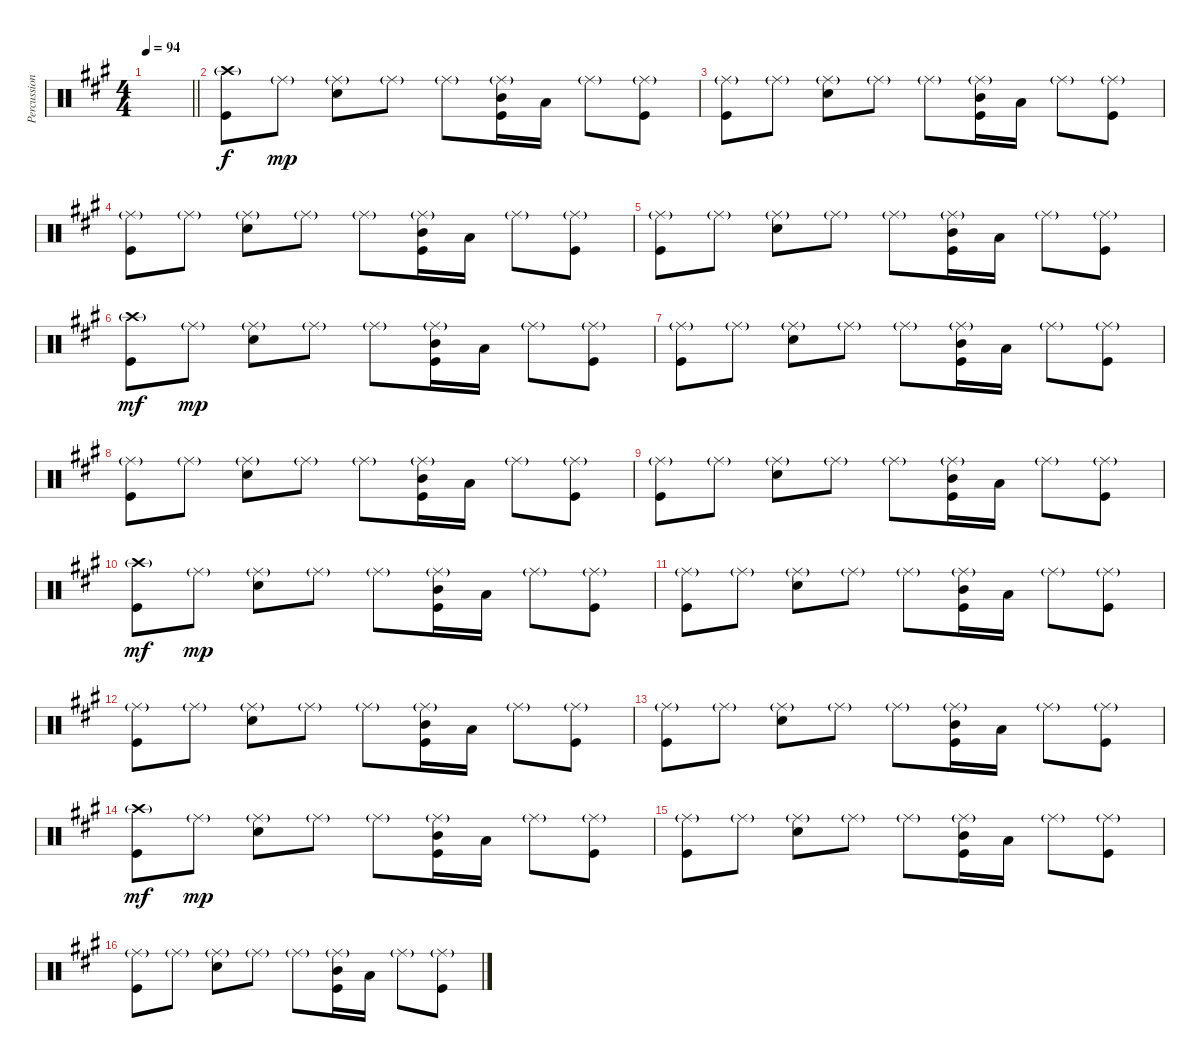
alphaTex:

\track ("Percussion" "Percussion") {instrument percussion}
\staff {score}
\articulation defaults
\ts (4 4)
\tempo 94
\clef neutral
\barLineRight lightlight
\ks a
|
("Crash high (hit)"{g} "Kick (hit)").8 "Ride (middle)"{g}.8{dy mp} ("Ride (middle)"{g} "Electric Snare (hit)").8 "Ride (middle)"{g}.8 "Ride (middle)"{g}.8 ("Ride (middle)"{g} "Mid Tom (hit)" "Kick (hit)").16 "Low Tom (hit)".16 "Ride (middle)"{g}.8 ("Ride (middle)"{g} "Kick (hit)").8 |
("Ride (middle)"{g} "Kick (hit)").8 "Ride (middle)"{g}.8 ("Ride (middle)"{g} "Electric Snare (hit)").8 "Ride (middle)"{g}.8 "Ride (middle)"{g}.8 ("Ride (middle)"{g} "Mid Tom (hit)" "Kick (hit)").16 "Low Tom (hit)".16 "Ride (middle)"{g}.8 ("Ride (middle)"{g} "Kick (hit)").8 |
("Ride (middle)"{g} "Kick (hit)").8 "Ride (middle)"{g}.8 ("Ride (middle)"{g} "Electric Snare (hit)").8 "Ride (middle)"{g}.8 "Ride (middle)"{g}.8 ("Ride (middle)"{g} "Mid Tom (hit)" "Kick (hit)").16 "Low Tom (hit)".16 "Ride (middle)"{g}.8 ("Ride (middle)"{g} "Kick (hit)").8 |
("Ride (middle)"{g} "Kick (hit)").8 "Ride (middle)"{g}.8 ("Ride (middle)"{g} "Electric Snare (hit)").8 "Ride (middle)"{g}.8 "Ride (middle)"{g}.8 ("Ride (middle)"{g} "Mid Tom (hit)" "Kick (hit)").16 "Low Tom (hit)".16 "Ride (middle)"{g}.8 ("Ride (middle)"{g} "Kick (hit)").8 |
("Crash high (hit)"{g} "Kick (hit)").8{dy mf} "Ride (middle)"{g}.8{dy mp} ("Ride (middle)"{g} "Electric Snare (hit)").8 "Ride (middle)"{g}.8 "Ride (middle)"{g}.8 ("Ride (middle)"{g} "Mid Tom (hit)" "Kick (hit)").16 "Low Tom (hit)".16 "Ride (middle)"{g}.8 ("Ride (middle)"{g} "Kick (hit)").8 |
("Ride (middle)"{g} "Kick (hit)").8 "Ride (middle)"{g}.8 ("Ride (middle)"{g} "Electric Snare (hit)").8 "Ride (middle)"{g}.8 "Ride (middle)"{g}.8 ("Ride (middle)"{g} "Mid Tom (hit)" "Kick (hit)").16 "Low Tom (hit)".16 "Ride (middle)"{g}.8 ("Ride (middle)"{g} "Kick (hit)").8 |
("Ride (middle)"{g} "Kick (hit)").8 "Ride (middle)"{g}.8 ("Ride (middle)"{g} "Electric Snare (hit)").8 "Ride (middle)"{g}.8 "Ride (middle)"{g}.8 ("Ride (middle)"{g} "Mid Tom (hit)" "Kick (hit)").16 "Low Tom (hit)".16 "Ride (middle)"{g}.8 ("Ride (middle)"{g} "Kick (hit)").8 |
("Ride (middle)"{g} "Kick (hit)").8 "Ride (middle)"{g}.8 ("Ride (middle)"{g} "Electric Snare (hit)").8 "Ride (middle)"{g}.8 "Ride (middle)"{g}.8 ("Ride (middle)"{g} "Mid Tom (hit)" "Kick (hit)").16 "Low Tom (hit)".16 "Ride (middle)"{g}.8 ("Ride (middle)"{g} "Kick (hit)").8 |
("Crash high (hit)"{g} "Kick (hit)").8{dy mf} "Ride (middle)"{g}.8{dy mp} ("Ride (middle)"{g} "Electric Snare (hit)").8 "Ride (middle)"{g}.8 "Ride (middle)"{g}.8 ("Ride (middle)"{g} "Mid Tom (hit)" "Kick (hit)").16 "Low Tom (hit)".16 "Ride (middle)"{g}.8 ("Ride (middle)"{g} "Kick (hit)").8 |
("Ride (middle)"{g} "Kick (hit)").8 "Ride (middle)"{g}.8 ("Ride (middle)"{g} "Electric Snare (hit)").8 "Ride (middle)"{g}.8 "Ride (middle)"{g}.8 ("Ride (middle)"{g} "Mid Tom (hit)" "Kick (hit)").16 "Low Tom (hit)".16 "Ride (middle)"{g}.8 ("Ride (middle)"{g} "Kick (hit)").8 |
("Ride (middle)"{g} "Kick (hit)").8 "Ride (middle)"{g}.8 ("Ride (middle)"{g} "Electric Snare (hit)").8 "Ride (middle)"{g}.8 "Ride (middle)"{g}.8 ("Ride (middle)"{g} "Mid Tom (hit)" "Kick (hit)").16 "Low Tom (hit)".16 "Ride (middle)"{g}.8 ("Ride (middle)"{g} "Kick (hit)").8 |
("Ride (middle)"{g} "Kick (hit)").8 "Ride (middle)"{g}.8 ("Ride (middle)"{g} "Electric Snare (hit)").8 "Ride (middle)"{g}.8 "Ride (middle)"{g}.8 ("Ride (middle)"{g} "Mid Tom (hit)" "Kick (hit)").16 "Low Tom (hit)".16 "Ride (middle)"{g}.8 ("Ride (middle)"{g} "Kick (hit)").8 |
("Crash high (hit)"{g} "Kick (hit)").8{dy mf} "Ride (middle)"{g}.8{dy mp} ("Ride (middle)"{g} "Electric Snare (hit)").8 "Ride (middle)"{g}.8 "Ride (middle)"{g}.8 ("Ride (middle)"{g} "Mid Tom (hit)" "Kick (hit)").16 "Low Tom (hit)".16 "Ride (middle)"{g}.8 ("Ride (middle)"{g} "Kick (hit)").8 |
("Ride (middle)"{g} "Kick (hit)").8 "Ride (middle)"{g}.8 ("Ride (middle)"{g} "Electric Snare (hit)").8 "Ride (middle)"{g}.8 "Ride (middle)"{g}.8 ("Ride (middle)"{g} "Mid Tom (hit)" "Kick (hit)").16 "Low Tom (hit)".16 "Ride (middle)"{g}.8 ("Ride (middle)"{g} "Kick (hit)").8 |
("Ride (middle)"{g} "Kick (hit)").8 "Ride (middle)"{g}.8 ("Ride (middle)"{g} "Electric Snare (hit)").8 "Ride (middle)"{g}.8 "Ride (middle)"{g}.8 ("Ride (middle)"{g} "Mid Tom (hit)" "Kick (hit)").16 "Low Tom (hit)".16 "Ride (middle)"{g}.8 ("Ride (middle)"{g} "Kick (hit)").8
